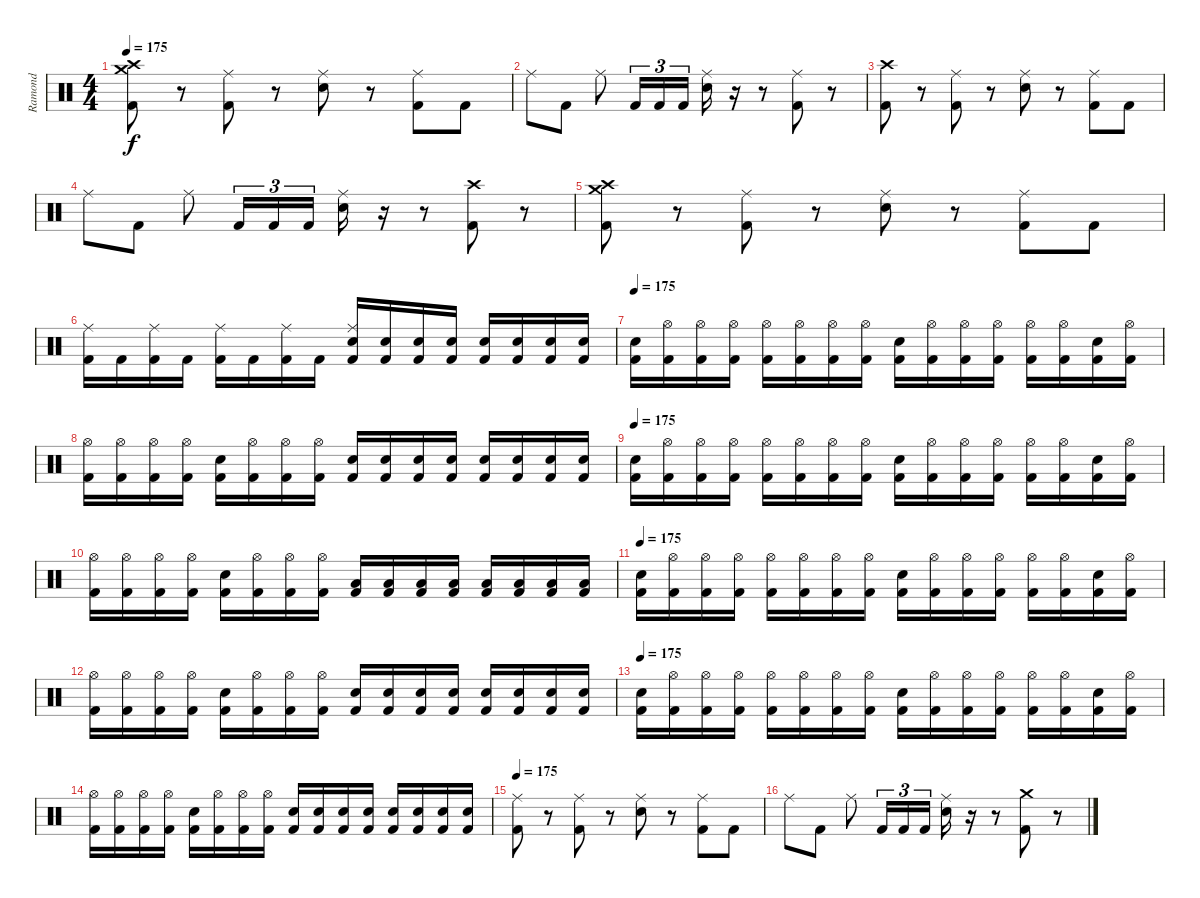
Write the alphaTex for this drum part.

\track ("Ramond" "Ramond") {instrument percussion}
\staff {score}
\articulation defaults
\ts (4 4)
\tempo 175
\clef neutral
\ks c
("Crash high (hit)" "Crash medium (hit)" "Kick (hit) 2").8{dy f} r.8 ("Ride (middle)" "Kick (hit) 2").8 r.8 ("Ride (middle)" "Electric Snare (hit)").8 r.8 ("Ride (middle)" "Kick (hit) 2").8 "Kick (hit) 2".8 |
"Ride (middle)".8 "Kick (hit) 2".8 "Ride (middle)".8 "Kick (hit) 2".16{tu (3 2)} "Kick (hit) 2".16{tu (3 2)} "Kick (hit) 2".16{tu (3 2)} ("Ride (middle)" "Electric Snare (hit)").16 r.16 r.8 ("Ride (middle)" "Kick (hit) 2").8 r.8 |
("Crash high (hit)" "Kick (hit) 2").8 r.8 ("Ride (middle)" "Kick (hit) 2").8 r.8 ("Ride (middle)" "Electric Snare (hit)").8 r.8 ("Ride (middle)" "Kick (hit) 2").8 "Kick (hit) 2".8 |
"Ride (middle)".8 "Kick (hit) 2".8 "Ride (middle)".8 "Kick (hit) 2".16{tu (3 2)} "Kick (hit) 2".16{tu (3 2)} "Kick (hit) 2".16{tu (3 2)} ("Ride (middle)" "Electric Snare (hit)").16 r.16 r.8 ("Crash high (hit)" "Kick (hit) 2").8 r.8 |
("Crash high (hit)" "Crash medium (hit)" "Kick (hit) 2").8 r.8 ("Ride (middle)" "Kick (hit) 2").8 r.8 ("Ride (middle)" "Electric Snare (hit)").8 r.8 ("Ride (middle)" "Kick (hit) 2").8 "Kick (hit) 2".8 |
("Ride (middle)" "Kick (hit) 2").16 "Kick (hit) 2".16 ("Ride (middle)" "Kick (hit) 2").16 "Kick (hit) 2".16 ("Ride (middle)" "Kick (hit) 2").16 "Kick (hit) 2".16 ("Ride (middle)" "Kick (hit) 2").16 "Kick (hit) 2".16 ("Ride (middle)" "Electric Snare (hit)" "Kick (hit) 2").16 ("Electric Snare (hit)" "Kick (hit) 2").16 ("Electric Snare (hit)" "Kick (hit) 2").16 ("Electric Snare (hit)" "Kick (hit) 2").16 ("Electric Snare (hit)" "Kick (hit) 2").16 ("Electric Snare (hit)" "Kick (hit) 2").16 ("Electric Snare (hit)" "Kick (hit) 2").16 ("Electric Snare (hit)" "Kick (hit) 2").16 |
\tempo 175
("Electric Snare (hit)" "Kick (hit) 2").16 ("Hi-Hat (open)" "Kick (hit) 2").16 ("Hi-Hat (open)" "Kick (hit) 2").16 ("Hi-Hat (open)" "Kick (hit) 2").16 ("Hi-Hat (open)" "Kick (hit) 2").16 ("Hi-Hat (open)" "Kick (hit) 2").16 ("Hi-Hat (open)" "Kick (hit) 2").16 ("Hi-Hat (open)" "Kick (hit) 2").16 ("Electric Snare (hit)" "Kick (hit) 2").16 ("Hi-Hat (open)" "Kick (hit) 2").16 ("Hi-Hat (open)" "Kick (hit) 2").16 ("Hi-Hat (open)" "Kick (hit) 2").16 ("Hi-Hat (open)" "Kick (hit) 2").16 ("Hi-Hat (open)" "Kick (hit) 2").16 ("Electric Snare (hit)" "Kick (hit) 2").16 ("Hi-Hat (open)" "Kick (hit) 2").16 |
("Hi-Hat (open)" "Kick (hit) 2").16 ("Hi-Hat (open)" "Kick (hit) 2").16 ("Hi-Hat (open)" "Kick (hit) 2").16 ("Hi-Hat (open)" "Kick (hit) 2").16 ("Electric Snare (hit)" "Kick (hit) 2").16 ("Hi-Hat (open)" "Kick (hit) 2").16 ("Hi-Hat (open)" "Kick (hit) 2").16 ("Hi-Hat (open)" "Kick (hit) 2").16 ("Electric Snare (hit)" "Kick (hit) 2").16 ("Electric Snare (hit)" "Kick (hit) 2").16 ("Electric Snare (hit)" "Kick (hit) 2").16 ("Electric Snare (hit)" "Kick (hit) 2").16 ("Electric Snare (hit)" "Kick (hit) 2").16 ("Electric Snare (hit)" "Kick (hit) 2").16 ("Electric Snare (hit)" "Kick (hit) 2").16 ("Electric Snare (hit)" "Kick (hit) 2").16 |
\tempo 175
("Electric Snare (hit)" "Kick (hit) 2").16 ("Hi-Hat (open)" "Kick (hit) 2").16 ("Hi-Hat (open)" "Kick (hit) 2").16 ("Hi-Hat (open)" "Kick (hit) 2").16 ("Hi-Hat (open)" "Kick (hit) 2").16 ("Hi-Hat (open)" "Kick (hit) 2").16 ("Hi-Hat (open)" "Kick (hit) 2").16 ("Hi-Hat (open)" "Kick (hit) 2").16 ("Electric Snare (hit)" "Kick (hit) 2").16 ("Hi-Hat (open)" "Kick (hit) 2").16 ("Hi-Hat (open)" "Kick (hit) 2").16 ("Hi-Hat (open)" "Kick (hit) 2").16 ("Hi-Hat (open)" "Kick (hit) 2").16 ("Hi-Hat (open)" "Kick (hit) 2").16 ("Electric Snare (hit)" "Kick (hit) 2").16 ("Hi-Hat (open)" "Kick (hit) 2").16 |
("Hi-Hat (open)" "Kick (hit) 2").16 ("Hi-Hat (open)" "Kick (hit) 2").16 ("Hi-Hat (open)" "Kick (hit) 2").16 ("Hi-Hat (open)" "Kick (hit) 2").16 ("Electric Snare (hit)" "Kick (hit) 2").16 ("Hi-Hat (open)" "Kick (hit) 2").16 ("Hi-Hat (open)" "Kick (hit) 2").16 ("Hi-Hat (open)" "Kick (hit) 2").16 ("Low Floor Tom (hit)" "Kick (hit) 2").16 ("Low Floor Tom (hit)" "Kick (hit) 2").16 ("Low Floor Tom (hit)" "Kick (hit) 2").16 ("Low Floor Tom (hit)" "Kick (hit) 2").16 ("Low Floor Tom (hit)" "Kick (hit) 2").16 ("Low Floor Tom (hit)" "Kick (hit) 2").16 ("Low Floor Tom (hit)" "Kick (hit) 2").16 ("Low Floor Tom (hit)" "Kick (hit) 2").16 |
\tempo 175
("Electric Snare (hit)" "Kick (hit) 2").16 ("Hi-Hat (open)" "Kick (hit) 2").16 ("Hi-Hat (open)" "Kick (hit) 2").16 ("Hi-Hat (open)" "Kick (hit) 2").16 ("Hi-Hat (open)" "Kick (hit) 2").16 ("Hi-Hat (open)" "Kick (hit) 2").16 ("Hi-Hat (open)" "Kick (hit) 2").16 ("Hi-Hat (open)" "Kick (hit) 2").16 ("Electric Snare (hit)" "Kick (hit) 2").16 ("Hi-Hat (open)" "Kick (hit) 2").16 ("Hi-Hat (open)" "Kick (hit) 2").16 ("Hi-Hat (open)" "Kick (hit) 2").16 ("Hi-Hat (open)" "Kick (hit) 2").16 ("Hi-Hat (open)" "Kick (hit) 2").16 ("Electric Snare (hit)" "Kick (hit) 2").16 ("Hi-Hat (open)" "Kick (hit) 2").16 |
("Hi-Hat (open)" "Kick (hit) 2").16 ("Hi-Hat (open)" "Kick (hit) 2").16 ("Hi-Hat (open)" "Kick (hit) 2").16 ("Hi-Hat (open)" "Kick (hit) 2").16 ("Electric Snare (hit)" "Kick (hit) 2").16 ("Hi-Hat (open)" "Kick (hit) 2").16 ("Hi-Hat (open)" "Kick (hit) 2").16 ("Hi-Hat (open)" "Kick (hit) 2").16 ("Electric Snare (hit)" "Kick (hit) 2").16 ("Electric Snare (hit)" "Kick (hit) 2").16 ("Electric Snare (hit)" "Kick (hit) 2").16 ("Electric Snare (hit)" "Kick (hit) 2").16 ("Electric Snare (hit)" "Kick (hit) 2").16 ("Electric Snare (hit)" "Kick (hit) 2").16 ("Electric Snare (hit)" "Kick (hit) 2").16 ("Electric Snare (hit)" "Kick (hit) 2").16 |
\tempo 175
("Electric Snare (hit)" "Kick (hit) 2").16 ("Hi-Hat (open)" "Kick (hit) 2").16 ("Hi-Hat (open)" "Kick (hit) 2").16 ("Hi-Hat (open)" "Kick (hit) 2").16 ("Hi-Hat (open)" "Kick (hit) 2").16 ("Hi-Hat (open)" "Kick (hit) 2").16 ("Hi-Hat (open)" "Kick (hit) 2").16 ("Hi-Hat (open)" "Kick (hit) 2").16 ("Electric Snare (hit)" "Kick (hit) 2").16 ("Hi-Hat (open)" "Kick (hit) 2").16 ("Hi-Hat (open)" "Kick (hit) 2").16 ("Hi-Hat (open)" "Kick (hit) 2").16 ("Hi-Hat (open)" "Kick (hit) 2").16 ("Hi-Hat (open)" "Kick (hit) 2").16 ("Electric Snare (hit)" "Kick (hit) 2").16 ("Hi-Hat (open)" "Kick (hit) 2").16 |
("Hi-Hat (open)" "Kick (hit) 2").16 ("Hi-Hat (open)" "Kick (hit) 2").16 ("Hi-Hat (open)" "Kick (hit) 2").16 ("Hi-Hat (open)" "Kick (hit) 2").16 ("Electric Snare (hit)" "Kick (hit) 2").16 ("Hi-Hat (open)" "Kick (hit) 2").16 ("Hi-Hat (open)" "Kick (hit) 2").16 ("Hi-Hat (open)" "Kick (hit) 2").16 ("Electric Snare (hit)" "Kick (hit) 2").16 ("Electric Snare (hit)" "Kick (hit) 2").16 ("Electric Snare (hit)" "Kick (hit) 2").16 ("Electric Snare (hit)" "Kick (hit) 2").16 ("Electric Snare (hit)" "Kick (hit) 2").16 ("Electric Snare (hit)" "Kick (hit) 2").16 ("Electric Snare (hit)" "Kick (hit) 2").16 ("Electric Snare (hit)" "Kick (hit) 2").16 |
\tempo 175
("Ride (middle)" "Kick (hit) 2").8 r.8 ("Ride (middle)" "Kick (hit) 2").8 r.8 ("Ride (middle)" "Electric Snare (hit)").8 r.8 ("Ride (middle)" "Kick (hit) 2").8 "Kick (hit) 2".8 |
"Ride (middle)".8 "Kick (hit) 2".8 "Ride (middle)".8 "Kick (hit) 2".16{tu (3 2)} "Kick (hit) 2".16{tu (3 2)} "Kick (hit) 2".16{tu (3 2)} ("Ride (middle)" "Electric Snare (hit)").16 r.16 r.8 ("Crash medium (hit)" "Kick (hit) 2").8 r.8
